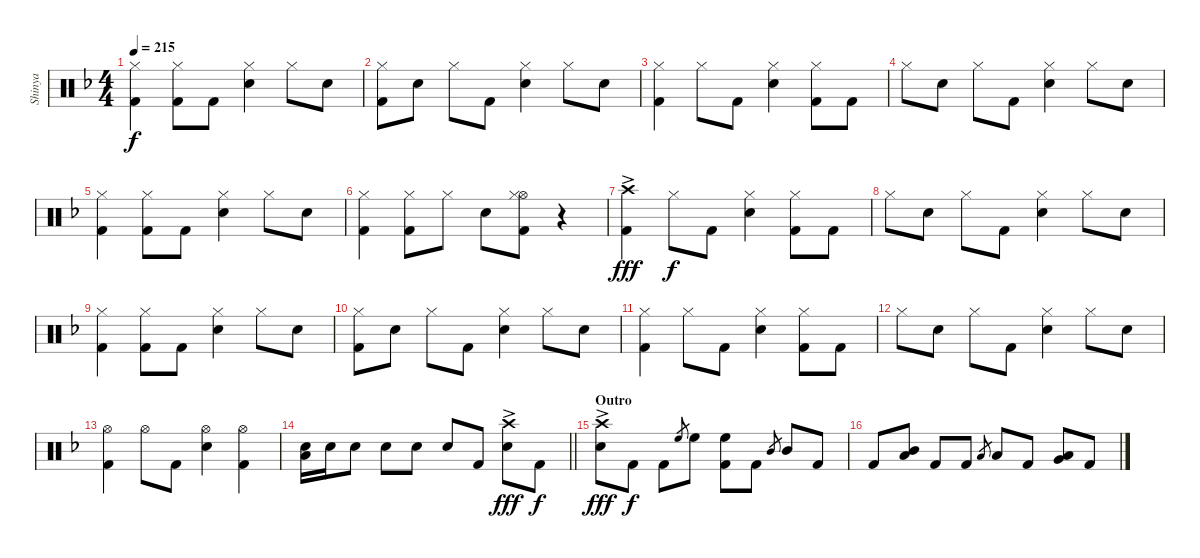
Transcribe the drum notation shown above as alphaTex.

\track ("Shinya" "Shinya") {instrument percussion}
\staff {score}
\articulation defaults
\ts (4 4)
\tempo 215
\clef neutral
\ks f
("Hi-Hat (closed)" "Kick (hit) 2").4{dy f} ("Hi-Hat (closed)" "Kick (hit) 2").8 "Kick (hit) 2".8 ("Hi-Hat (closed)" "Snare (hit) 2").4 "Hi-Hat (closed)".8 "Snare (hit) 2".8 |
("Hi-Hat (closed)" "Kick (hit) 2").8 "Snare (hit) 2".8 "Hi-Hat (closed)".8 "Kick (hit) 2".8 ("Hi-Hat (closed)" "Snare (hit) 2").4 "Hi-Hat (closed)".8 "Snare (hit) 2".8 |
("Hi-Hat (closed)" "Kick (hit) 2").4 "Hi-Hat (closed)".8 "Kick (hit) 2".8 ("Hi-Hat (closed)" "Snare (hit) 2").4 ("Hi-Hat (closed)" "Kick (hit) 2").8 "Kick (hit) 2".8 |
"Hi-Hat (closed)".8 "Snare (hit) 2".8 "Hi-Hat (closed)".8 "Kick (hit) 2".8 ("Hi-Hat (closed)" "Snare (hit) 2").4 "Hi-Hat (closed)".8 "Snare (hit) 2".8 |
("Hi-Hat (closed)" "Kick (hit) 2").4 ("Hi-Hat (closed)" "Kick (hit) 2").8 "Kick (hit) 2".8 ("Hi-Hat (closed)" "Snare (hit) 2").4 "Hi-Hat (closed)".8 "Snare (hit) 2".8 |
("Hi-Hat (closed)" "Kick (hit) 2").4 ("Hi-Hat (closed)" "Kick (hit) 2").8 "Hi-Hat (closed)".8 "Snare (hit) 2".8 ("Hi-Hat (open)" "Hi-Hat (closed)" "Kick (hit) 2").8 r.4 |
("Crash high (hit)"{ac} "Kick (hit) 2").4{dy fff} "Hi-Hat (closed)".8{dy f} "Kick (hit) 2".8 ("Hi-Hat (closed)" "Snare (hit) 2").4 ("Hi-Hat (closed)" "Kick (hit) 2").8 "Kick (hit) 2".8 |
"Hi-Hat (closed)".8 "Snare (hit) 2".8 "Hi-Hat (closed)".8 "Kick (hit) 2".8 ("Hi-Hat (closed)" "Snare (hit) 2").4 "Hi-Hat (closed)".8 "Snare (hit) 2".8 |
("Hi-Hat (closed)" "Kick (hit) 2").4 ("Hi-Hat (closed)" "Kick (hit) 2").8 "Kick (hit) 2".8 ("Hi-Hat (closed)" "Snare (hit) 2").4 "Hi-Hat (closed)".8 "Snare (hit) 2".8 |
("Hi-Hat (closed)" "Kick (hit) 2").8 "Snare (hit) 2".8 "Hi-Hat (closed)".8 "Kick (hit) 2".8 ("Hi-Hat (closed)" "Snare (hit) 2").4 "Hi-Hat (closed)".8 "Snare (hit) 2".8 |
("Hi-Hat (closed)" "Kick (hit) 2").4 "Hi-Hat (closed)".8 "Kick (hit) 2".8 ("Hi-Hat (closed)" "Snare (hit) 2").4 ("Hi-Hat (closed)" "Kick (hit) 2").8 "Kick (hit) 2".8 |
"Hi-Hat (closed)".8 "Snare (hit) 2".8 "Hi-Hat (closed)".8 "Kick (hit) 2".8 ("Hi-Hat (closed)" "Snare (hit) 2").4 "Hi-Hat (closed)".8 "Snare (hit) 2".8 |
("Hi-Hat (open)" "Kick (hit) 2").4 "Hi-Hat (open)".8 "Kick (hit) 2".8 ("Hi-Hat (open)" "Snare (hit) 2").4 ("Hi-Hat (open)" "Kick (hit) 2").4 |
\barLineRight lightlight
("Snare (hit) 2" "Low Floor Tom (hit)").16 "Snare (hit) 2".16 "Snare (hit) 2".8 "Snare (hit) 2".8 "Snare (hit) 2".8 "Snare (hit) 2".8 "Kick (hit) 2".8 ("Crash high (hit)"{ac} "Snare (hit) 2").8{dy fff} "Kick (hit) 2".8{dy f} |
\section ("" "Outro")
("Crash high (hit)"{ac} "Snare (hit) 2").8{dy fff} "Kick (hit) 2".8{dy f} "Kick (hit) 2".8 "High Floor Tom (hit)".8{gr} "High Floor Tom (hit)".8 ("High Floor Tom (hit)" "Kick (hit) 2").8 "Kick (hit) 2".8 "Mid Tom (hit)".8{gr} "Mid Tom (hit)".8 "Kick (hit) 2".8 |
"Kick (hit) 2".8 ("Mid Tom (hit)" "Low Tom (hit)").8 "Kick (hit) 2".8 "Kick (hit) 2".8 "Low Tom (hit)".8{gr} "Low Tom (hit)".8 "Kick (hit) 2".8 ("Low Tom (hit)" "Very Low Tom (hit)").8 "Kick (hit) 2".8
